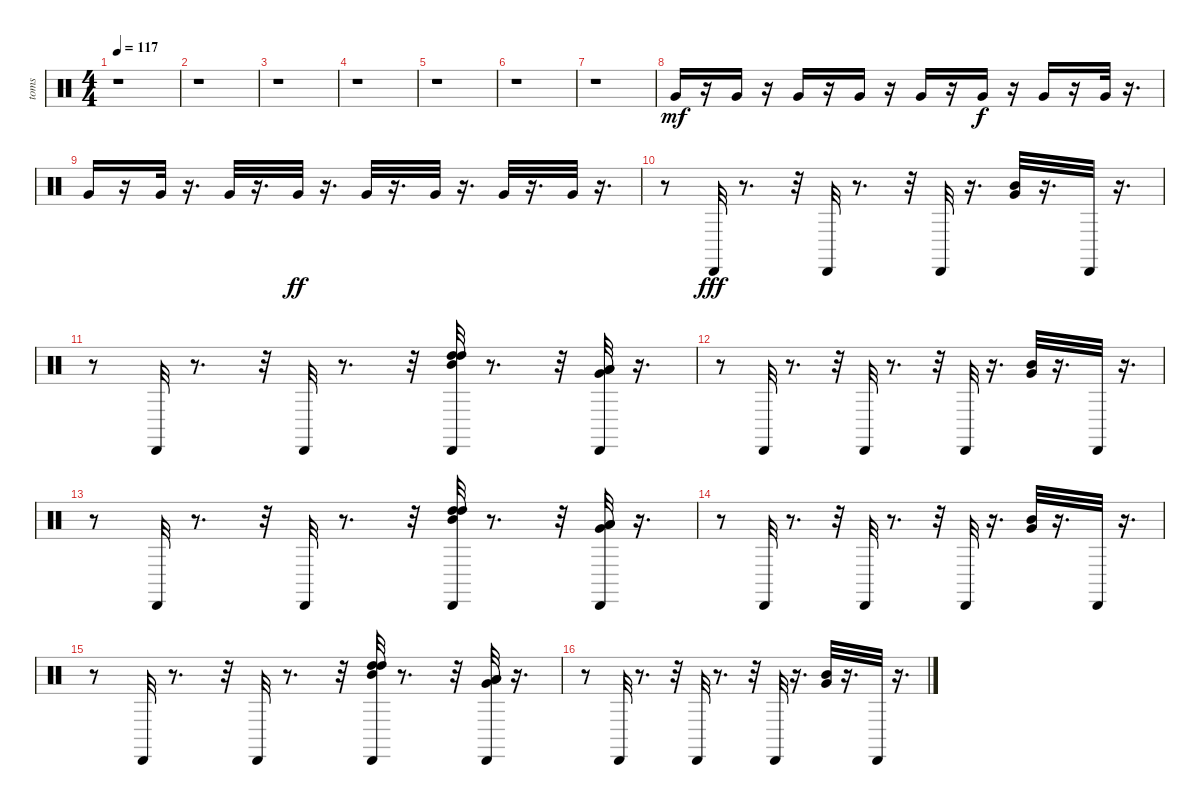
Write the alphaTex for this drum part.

\track ("toms" "toms") {instrument percussion}
\staff {score}
\articulation defaults
\ts (4 4)
\tempo 117
\clef neutral
\ks c
r.1{dy mf} |
r.1 |
r.1 |
r.1 |
r.1 |
r.1 |
r.1 |
"Very Low Tom (hit)".16 r.16 "Very Low Tom (hit)".16 r.16 "Very Low Tom (hit)".16 r.16 "Very Low Tom (hit)".16 r.16 "Very Low Tom (hit)".16 r.16 "Very Low Tom (hit)".16{dy f} r.16 "Very Low Tom (hit)".16 r.16 "Very Low Tom (hit)".32 r.16{d} |
"Very Low Tom (hit)".16 r.16 "Very Low Tom (hit)".32 r.16{d} "Very Low Tom (hit)".32 r.16{d} "Very Low Tom (hit)".32{dy ff} r.16{d} "Very Low Tom (hit)".32 r.16{d} "Very Low Tom (hit)".32 r.16{d} "Very Low Tom (hit)".32 r.16{d} "Very Low Tom (hit)".32 r.16{d} |
r.8 "Cabasa (hit)".32{dy fff} r.8{d} r.32 "Cabasa (hit)".32 r.8{d} r.32 "Cabasa (hit)".32 r.16{d} ("Very Low Tom (hit)" "Mid Tom (hit)").32 r.16{d} "Cabasa (hit)".32 r.16{d} |
r.8 "Cabasa (hit)".32 r.8{d} r.32 "Cabasa (hit)".32 r.8{d} r.32 ("High Tom (hit)" "High Tom (hit)" "Mid Tom (hit)" "Cabasa (hit)").32 r.8{d} r.32 ("Low Tom (hit)" "Low Tom (hit)" "Very Low Tom (hit)" "Cabasa (hit)").32 r.16{d} |
r.8 "Cabasa (hit)".32 r.8{d} r.32 "Cabasa (hit)".32 r.8{d} r.32 "Cabasa (hit)".32 r.16{d} ("Very Low Tom (hit)" "Mid Tom (hit)").32 r.16{d} "Cabasa (hit)".32 r.16{d} |
r.8 "Cabasa (hit)".32 r.8{d} r.32 "Cabasa (hit)".32 r.8{d} r.32 ("High Tom (hit)" "High Tom (hit)" "Mid Tom (hit)" "Cabasa (hit)").32 r.8{d} r.32 ("Low Tom (hit)" "Low Tom (hit)" "Very Low Tom (hit)" "Cabasa (hit)").32 r.16{d} |
r.8 "Cabasa (hit)".32 r.8{d} r.32 "Cabasa (hit)".32 r.8{d} r.32 "Cabasa (hit)".32 r.16{d} ("Very Low Tom (hit)" "Mid Tom (hit)").32 r.16{d} "Cabasa (hit)".32 r.16{d} |
r.8 "Cabasa (hit)".32 r.8{d} r.32 "Cabasa (hit)".32 r.8{d} r.32 ("High Tom (hit)" "High Tom (hit)" "Mid Tom (hit)" "Cabasa (hit)").32 r.8{d} r.32 ("Low Tom (hit)" "Low Tom (hit)" "Very Low Tom (hit)" "Cabasa (hit)").32 r.16{d} |
r.8 "Cabasa (hit)".32 r.8{d} r.32 "Cabasa (hit)".32 r.8{d} r.32 "Cabasa (hit)".32 r.16{d} ("Very Low Tom (hit)" "Mid Tom (hit)").32 r.16{d} "Cabasa (hit)".32 r.16{d}
